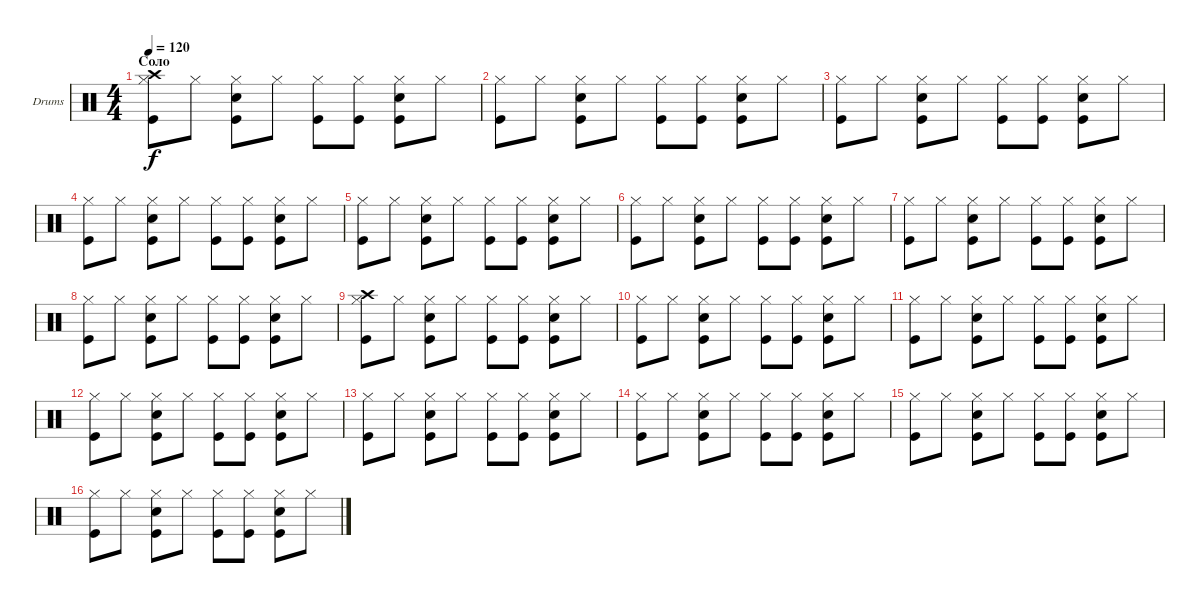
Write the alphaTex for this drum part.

\defaultSystemsLayout 4
\bracketExtendMode groupsimilarinstruments
\firstSystemTrackNameOrientation horizontal
\otherSystemsTrackNameOrientation horizontal
\track ("Drumkit" "Drums") {instrument percussion}
\staff {score}
\articulation defaults
\ts (4 4)
\section ("" "Соло")
\tempo 120
\clef neutral
\ks c
("Hi-Hat (closed)" "Kick (hit)" "Crash high (hit)").8{dy f} "Hi-Hat (closed)".8 ("Hi-Hat (closed)" "Snare (hit) 2" "Kick (hit)").8 "Hi-Hat (closed)".8 ("Hi-Hat (closed)" "Kick (hit)").8 ("Hi-Hat (closed)" "Kick (hit)").8 ("Hi-Hat (closed)" "Snare (hit) 2" "Kick (hit)").8 "Hi-Hat (closed)".8 |
("Hi-Hat (closed)" "Kick (hit)").8 "Hi-Hat (closed)".8 ("Hi-Hat (closed)" "Snare (hit) 2" "Kick (hit)").8 "Hi-Hat (closed)".8 ("Hi-Hat (closed)" "Kick (hit)").8 ("Hi-Hat (closed)" "Kick (hit)").8 ("Hi-Hat (closed)" "Snare (hit) 2" "Kick (hit)").8 "Hi-Hat (closed)".8 |
("Hi-Hat (closed)" "Kick (hit)").8 "Hi-Hat (closed)".8 ("Hi-Hat (closed)" "Snare (hit) 2" "Kick (hit)").8 "Hi-Hat (closed)".8 ("Hi-Hat (closed)" "Kick (hit)").8 ("Hi-Hat (closed)" "Kick (hit)").8 ("Hi-Hat (closed)" "Snare (hit) 2" "Kick (hit)").8 "Hi-Hat (closed)".8 |
("Hi-Hat (closed)" "Kick (hit)").8 "Hi-Hat (closed)".8 ("Hi-Hat (closed)" "Snare (hit) 2" "Kick (hit)").8 "Hi-Hat (closed)".8 ("Hi-Hat (closed)" "Kick (hit)").8 ("Hi-Hat (closed)" "Kick (hit)").8 ("Hi-Hat (closed)" "Snare (hit) 2" "Kick (hit)").8 "Hi-Hat (closed)".8 |
("Hi-Hat (closed)" "Kick (hit)").8 "Hi-Hat (closed)".8 ("Hi-Hat (closed)" "Snare (hit) 2" "Kick (hit)").8 "Hi-Hat (closed)".8 ("Hi-Hat (closed)" "Kick (hit)").8 ("Hi-Hat (closed)" "Kick (hit)").8 ("Hi-Hat (closed)" "Snare (hit) 2" "Kick (hit)").8 "Hi-Hat (closed)".8 |
("Hi-Hat (closed)" "Kick (hit)").8 "Hi-Hat (closed)".8 ("Hi-Hat (closed)" "Snare (hit) 2" "Kick (hit)").8 "Hi-Hat (closed)".8 ("Hi-Hat (closed)" "Kick (hit)").8 ("Hi-Hat (closed)" "Kick (hit)").8 ("Hi-Hat (closed)" "Snare (hit) 2" "Kick (hit)").8 "Hi-Hat (closed)".8 |
("Hi-Hat (closed)" "Kick (hit)").8 "Hi-Hat (closed)".8 ("Hi-Hat (closed)" "Snare (hit) 2" "Kick (hit)").8 "Hi-Hat (closed)".8 ("Hi-Hat (closed)" "Kick (hit)").8 ("Hi-Hat (closed)" "Kick (hit)").8 ("Hi-Hat (closed)" "Snare (hit) 2" "Kick (hit)").8 "Hi-Hat (closed)".8 |
("Hi-Hat (closed)" "Kick (hit)").8 "Hi-Hat (closed)".8 ("Hi-Hat (closed)" "Snare (hit) 2" "Kick (hit)").8 "Hi-Hat (closed)".8 ("Hi-Hat (closed)" "Kick (hit)").8 ("Hi-Hat (closed)" "Kick (hit)").8 ("Hi-Hat (closed)" "Snare (hit) 2" "Kick (hit)").8 "Hi-Hat (closed)".8 |
("Hi-Hat (closed)" "Kick (hit)" "Crash high (hit)").8 "Hi-Hat (closed)".8 ("Hi-Hat (closed)" "Snare (hit) 2" "Kick (hit)").8 "Hi-Hat (closed)".8 ("Hi-Hat (closed)" "Kick (hit)").8 ("Hi-Hat (closed)" "Kick (hit)").8 ("Hi-Hat (closed)" "Snare (hit) 2" "Kick (hit)").8 "Hi-Hat (closed)".8 |
("Hi-Hat (closed)" "Kick (hit)").8 "Hi-Hat (closed)".8 ("Hi-Hat (closed)" "Snare (hit) 2" "Kick (hit)").8 "Hi-Hat (closed)".8 ("Hi-Hat (closed)" "Kick (hit)").8 ("Hi-Hat (closed)" "Kick (hit)").8 ("Hi-Hat (closed)" "Snare (hit) 2" "Kick (hit)").8 "Hi-Hat (closed)".8 |
("Hi-Hat (closed)" "Kick (hit)").8 "Hi-Hat (closed)".8 ("Hi-Hat (closed)" "Snare (hit) 2" "Kick (hit)").8 "Hi-Hat (closed)".8 ("Hi-Hat (closed)" "Kick (hit)").8 ("Hi-Hat (closed)" "Kick (hit)").8 ("Hi-Hat (closed)" "Snare (hit) 2" "Kick (hit)").8 "Hi-Hat (closed)".8 |
("Hi-Hat (closed)" "Kick (hit)").8 "Hi-Hat (closed)".8 ("Hi-Hat (closed)" "Snare (hit) 2" "Kick (hit)").8 "Hi-Hat (closed)".8 ("Hi-Hat (closed)" "Kick (hit)").8 ("Hi-Hat (closed)" "Kick (hit)").8 ("Hi-Hat (closed)" "Snare (hit) 2" "Kick (hit)").8 "Hi-Hat (closed)".8 |
("Hi-Hat (closed)" "Kick (hit)").8 "Hi-Hat (closed)".8 ("Hi-Hat (closed)" "Snare (hit) 2" "Kick (hit)").8 "Hi-Hat (closed)".8 ("Hi-Hat (closed)" "Kick (hit)").8 ("Hi-Hat (closed)" "Kick (hit)").8 ("Hi-Hat (closed)" "Snare (hit) 2" "Kick (hit)").8 "Hi-Hat (closed)".8 |
("Hi-Hat (closed)" "Kick (hit)").8 "Hi-Hat (closed)".8 ("Hi-Hat (closed)" "Snare (hit) 2" "Kick (hit)").8 "Hi-Hat (closed)".8 ("Hi-Hat (closed)" "Kick (hit)").8 ("Hi-Hat (closed)" "Kick (hit)").8 ("Hi-Hat (closed)" "Snare (hit) 2" "Kick (hit)").8 "Hi-Hat (closed)".8 |
("Hi-Hat (closed)" "Kick (hit)").8 "Hi-Hat (closed)".8 ("Hi-Hat (closed)" "Snare (hit) 2" "Kick (hit)").8 "Hi-Hat (closed)".8 ("Hi-Hat (closed)" "Kick (hit)").8 ("Hi-Hat (closed)" "Kick (hit)").8 ("Hi-Hat (closed)" "Snare (hit) 2" "Kick (hit)").8 "Hi-Hat (closed)".8 |
("Hi-Hat (closed)" "Kick (hit)").8 "Hi-Hat (closed)".8 ("Hi-Hat (closed)" "Snare (hit) 2" "Kick (hit)").8 "Hi-Hat (closed)".8 ("Hi-Hat (closed)" "Kick (hit)").8 ("Hi-Hat (closed)" "Kick (hit)").8 ("Hi-Hat (closed)" "Snare (hit) 2" "Kick (hit)").8 "Hi-Hat (closed)".8
